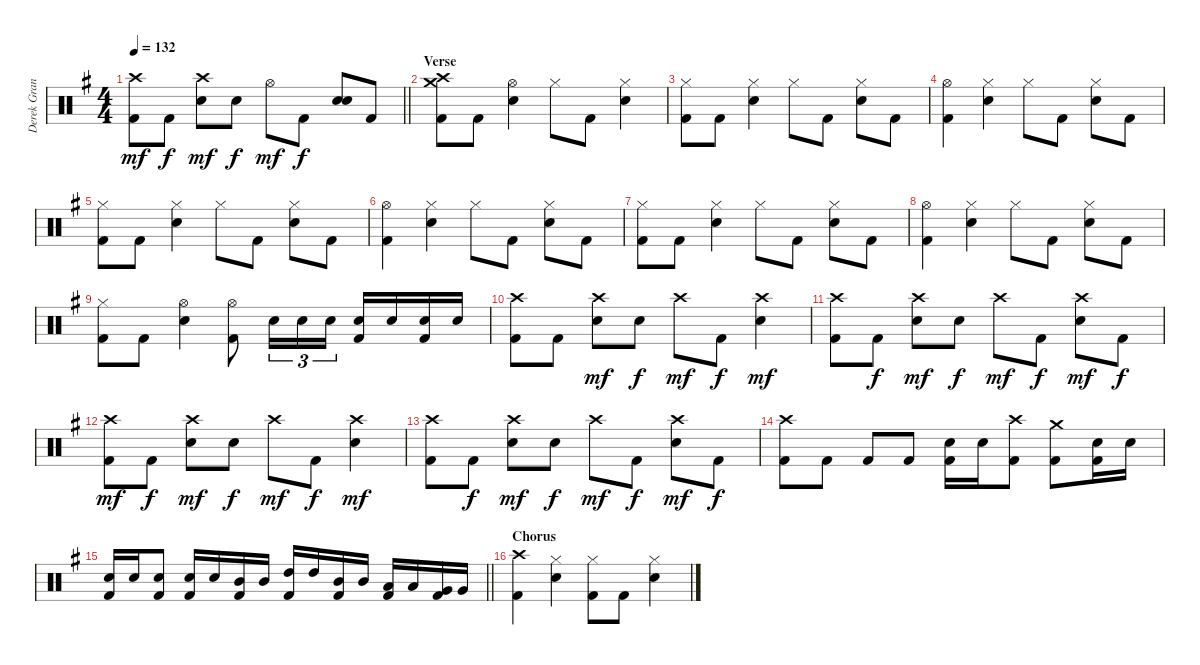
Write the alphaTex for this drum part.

\track ("Derek Grant - Drums" "Derek Gran") {instrument percussion}
\staff {score}
\articulation defaults
\ts (4 4)
\tempo 132
\clef neutral
\barLineRight lightlight
\ks g
("Kick (hit) 2" "Crash high (hit)").8{dy mf} "Kick (hit) 2".8{dy f} ("Snare (hit) 2" "Crash high (hit)").8{dy mf} "Snare (hit) 2".8{dy f} "Hi-Hat (open)".8{dy mf} "Kick (hit) 2".8{dy f} ("Snare (hit) 2" "Snare (hit) 2").8 "Kick (hit) 2".8 |
\section ("" "Verse")
("Kick (hit) 2" "Crash medium (hit)" "Crash high (hit)").8 "Kick (hit) 2".8 ("Snare (hit) 2" "Hi-Hat (open)").4 "Hi-Hat (closed)".8 "Kick (hit) 2".8 ("Snare (hit) 2" "Hi-Hat (closed)").4 |
("Kick (hit) 2" "Hi-Hat (closed)").8 "Kick (hit) 2".8 ("Snare (hit) 2" "Hi-Hat (closed)").4 "Hi-Hat (closed)".8 "Kick (hit) 2".8 ("Snare (hit) 2" "Hi-Hat (closed)").8 "Kick (hit) 2".8 |
("Kick (hit) 2" "Hi-Hat (open)").4 ("Snare (hit) 2" "Hi-Hat (closed)").4 "Hi-Hat (closed)".8 "Kick (hit) 2".8 ("Snare (hit) 2" "Hi-Hat (closed)").8 "Kick (hit) 2".8 |
("Kick (hit) 2" "Hi-Hat (closed)").8 "Kick (hit) 2".8 ("Snare (hit) 2" "Hi-Hat (closed)").4 "Hi-Hat (closed)".8 "Kick (hit) 2".8 ("Snare (hit) 2" "Hi-Hat (closed)").8 "Kick (hit) 2".8 |
("Kick (hit) 2" "Hi-Hat (open)").4 ("Snare (hit) 2" "Hi-Hat (closed)").4 "Hi-Hat (closed)".8 "Kick (hit) 2".8 ("Snare (hit) 2" "Hi-Hat (closed)").8 "Kick (hit) 2".8 |
("Kick (hit) 2" "Hi-Hat (closed)").8 "Kick (hit) 2".8 ("Snare (hit) 2" "Hi-Hat (closed)").4 "Hi-Hat (closed)".8 "Kick (hit) 2".8 ("Snare (hit) 2" "Hi-Hat (closed)").8 "Kick (hit) 2".8 |
("Kick (hit) 2" "Hi-Hat (open)").4 ("Snare (hit) 2" "Hi-Hat (closed)").4 "Hi-Hat (closed)".8 "Kick (hit) 2".8 ("Snare (hit) 2" "Hi-Hat (closed)").8 "Kick (hit) 2".8 |
("Kick (hit) 2" "Hi-Hat (closed)").8 "Kick (hit) 2".8 ("Snare (hit) 2" "Hi-Hat (open)").4 ("Kick (hit) 2" "Hi-Hat (open)").8 "Snare (hit) 2".16{tu (3 2)} "Snare (hit) 2".16{tu (3 2)} "Snare (hit) 2".16{tu (3 2)} ("Snare (hit) 2" "Kick (hit) 2").16 "Snare (hit) 2".16 ("Snare (hit) 2" "Kick (hit) 2").16 "Snare (hit) 2".16 |
("Kick (hit) 2" "Crash high (hit)").8 "Kick (hit) 2".8 ("Snare (hit) 2" "Crash high (hit)").8{dy mf} "Snare (hit) 2".8{dy f} "Crash high (hit)".8{dy mf} "Kick (hit) 2".8{dy f} ("Snare (hit) 2" "Crash high (hit)").4{dy mf} |
("Kick (hit) 2" "Crash high (hit)").8 "Kick (hit) 2".8{dy f} ("Snare (hit) 2" "Crash high (hit)").8{dy mf} "Snare (hit) 2".8{dy f} "Crash high (hit)".8{dy mf} "Kick (hit) 2".8{dy f} ("Snare (hit) 2" "Crash high (hit)").8{dy mf} "Kick (hit) 2".8{dy f} |
("Kick (hit) 2" "Crash high (hit)").8{dy mf} "Kick (hit) 2".8{dy f} ("Snare (hit) 2" "Crash high (hit)").8{dy mf} "Snare (hit) 2".8{dy f} "Crash high (hit)".8{dy mf} "Kick (hit) 2".8{dy f} ("Snare (hit) 2" "Crash high (hit)").4{dy mf} |
("Kick (hit) 2" "Crash high (hit)").8 "Kick (hit) 2".8{dy f} ("Snare (hit) 2" "Crash high (hit)").8{dy mf} "Snare (hit) 2".8{dy f} "Crash high (hit)".8{dy mf} "Kick (hit) 2".8{dy f} ("Snare (hit) 2" "Crash high (hit)").8{dy mf} "Kick (hit) 2".8{dy f} |
("Kick (hit) 2" "Crash high (hit)").8 "Kick (hit) 2".8 "Kick (hit) 2".8 "Kick (hit) 2".8 ("Kick (hit) 2" "Snare (hit) 2").16 "Snare (hit) 2".16 ("Kick (hit) 2" "Crash high (hit)").8 ("Kick (hit) 2" "Crash medium (hit)").8 ("Kick (hit) 2" "Snare (hit) 2").16 "Snare (hit) 2".16 |
\barLineRight lightlight
("Kick (hit) 2" "Snare (hit) 2").16 "Snare (hit) 2".16 ("Kick (hit) 2" "Snare (hit) 2").8 ("Kick (hit) 2" "Snare (hit) 2").16 "Snare (hit) 2".16 ("Kick (hit) 2" "Mid Tom (hit)").16 "Mid Tom (hit)".16 ("Kick (hit) 2" "High Tom (hit)").16 "High Tom (hit)".16 ("Kick (hit) 2" "Mid Tom (hit)").16 "Mid Tom (hit)".16 ("Kick (hit) 2" "Low Tom (hit)").16 "Low Tom (hit)".16 ("Kick (hit) 2" "Very Low Tom (hit)").16 "Very Low Tom (hit)".16 |
\section ("" "Chorus")
("Kick (hit) 2" "Crash high (hit)").4 ("Snare (hit) 2" "Hi-Hat (closed)").4 ("Kick (hit) 2" "Hi-Hat (closed)").8 "Kick (hit) 2".8 ("Snare (hit) 2" "Hi-Hat (closed)").4
